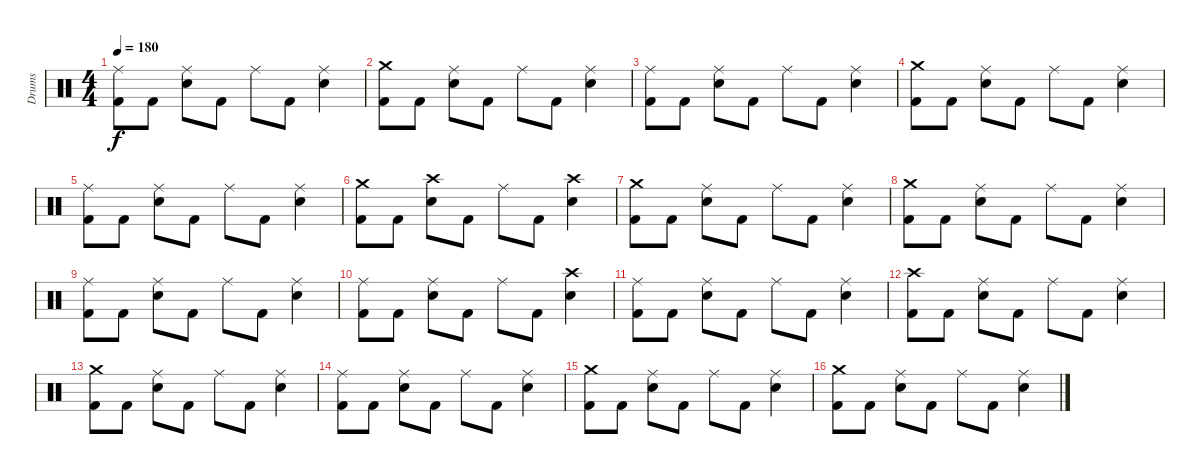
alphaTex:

\track ("Drums" "Drums") {instrument percussion}
\staff {score}
\articulation defaults
\ts (4 4)
\tempo 180
\clef neutral
\ks c
("Ride (middle)" "Kick (hit) 2").8{dy f} "Kick (hit) 2".8 ("Ride (middle)" "Electric Snare (hit)").8 "Kick (hit) 2".8 "Ride (middle)".8 "Kick (hit) 2".8 ("Ride (middle)" "Electric Snare (hit)").4 |
("Crash medium (hit)" "Kick (hit) 2").8 "Kick (hit) 2".8 ("Ride (middle)" "Electric Snare (hit)").8 "Kick (hit) 2".8 "Ride (middle)".8 "Kick (hit) 2".8 ("Ride (middle)" "Electric Snare (hit)").4 |
("Ride (middle)" "Kick (hit) 2").8 "Kick (hit) 2".8 ("Ride (middle)" "Electric Snare (hit)").8 "Kick (hit) 2".8 "Ride (middle)".8 "Kick (hit) 2".8 ("Ride (middle)" "Electric Snare (hit)").4 |
("Crash medium (hit)" "Kick (hit) 2").8 "Kick (hit) 2".8 ("Ride (middle)" "Electric Snare (hit)").8 "Kick (hit) 2".8 "Ride (middle)".8 "Kick (hit) 2".8 ("Ride (middle)" "Electric Snare (hit)").4 |
("Ride (middle)" "Kick (hit) 2").8 "Kick (hit) 2".8 ("Ride (middle)" "Electric Snare (hit)").8 "Kick (hit) 2".8 "Ride (middle)".8 "Kick (hit) 2".8 ("Ride (middle)" "Electric Snare (hit)").4 |
("Crash medium (hit)" "Kick (hit) 2").8 "Kick (hit) 2".8 ("Crash high (hit)" "Electric Snare (hit)").8 "Kick (hit) 2".8 "Ride (middle)".8 "Kick (hit) 2".8 ("Crash high (hit)" "Electric Snare (hit)").4 |
("Crash medium (hit)" "Kick (hit) 2").8 "Kick (hit) 2".8 ("Ride (middle)" "Electric Snare (hit)").8 "Kick (hit) 2".8 "Ride (middle)".8 "Kick (hit) 2".8 ("Ride (middle)" "Electric Snare (hit)").4 |
("Crash medium (hit)" "Kick (hit) 2").8 "Kick (hit) 2".8 ("Ride (middle)" "Electric Snare (hit)").8 "Kick (hit) 2".8 "Ride (middle)".8 "Kick (hit) 2".8 ("Ride (middle)" "Electric Snare (hit)").4 |
("Ride (middle)" "Kick (hit) 2").8 "Kick (hit) 2".8 ("Ride (middle)" "Electric Snare (hit)").8 "Kick (hit) 2".8 "Ride (middle)".8 "Kick (hit) 2".8 ("Ride (middle)" "Electric Snare (hit)").4 |
("Ride (middle)" "Kick (hit) 2").8 "Kick (hit) 2".8 ("Ride (middle)" "Electric Snare (hit)").8 "Kick (hit) 2".8 "Ride (middle)".8 "Kick (hit) 2".8 ("Crash high (hit)" "Electric Snare (hit)").4 |
("Ride (middle)" "Kick (hit) 2").8 "Kick (hit) 2".8 ("Ride (middle)" "Electric Snare (hit)").8 "Kick (hit) 2".8 "Ride (middle)".8 "Kick (hit) 2".8 ("Ride (middle)" "Electric Snare (hit)").4 |
("Crash high (hit)" "Kick (hit) 2").8 "Kick (hit) 2".8 ("Ride (middle)" "Electric Snare (hit)").8 "Kick (hit) 2".8 "Ride (middle)".8 "Kick (hit) 2".8 ("Ride (middle)" "Electric Snare (hit)").4 |
("Crash medium (hit)" "Kick (hit) 2").8 "Kick (hit) 2".8 ("Ride (middle)" "Electric Snare (hit)").8 "Kick (hit) 2".8 "Ride (middle)".8 "Kick (hit) 2".8 ("Ride (middle)" "Electric Snare (hit)").4 |
("Ride (middle)" "Kick (hit) 2").8 "Kick (hit) 2".8 ("Ride (middle)" "Electric Snare (hit)").8 "Kick (hit) 2".8 "Ride (middle)".8 "Kick (hit) 2".8 ("Ride (middle)" "Electric Snare (hit)").4 |
("Crash medium (hit)" "Kick (hit) 2").8 "Kick (hit) 2".8 ("Ride (middle)" "Electric Snare (hit)").8 "Kick (hit) 2".8 "Ride (middle)".8 "Kick (hit) 2".8 ("Ride (middle)" "Electric Snare (hit)").4 |
("Crash medium (hit)" "Kick (hit) 2").8 "Kick (hit) 2".8 ("Ride (middle)" "Electric Snare (hit)").8 "Kick (hit) 2".8 "Ride (middle)".8 "Kick (hit) 2".8 ("Ride (middle)" "Electric Snare (hit)").4
